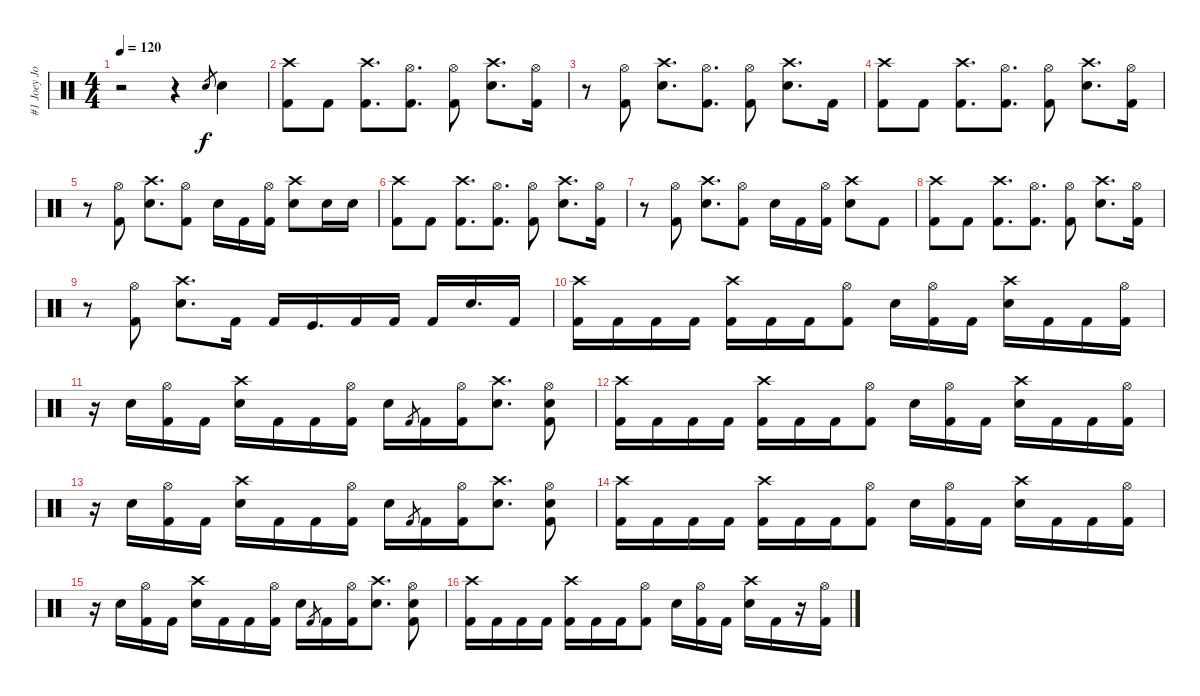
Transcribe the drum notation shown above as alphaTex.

\track ("#1 Joey Jordison" "#1 Joey Jo") {instrument percussion}
\staff {score}
\articulation defaults
\ts (4 4)
\tempo 120
\clef neutral
\ks c
r.2{dy f} r.4 "Electric Snare (hit)".8{gr} "Electric Snare (hit)".4 |
("Crash high (hit)" "Kick (hit) 2").8 "Kick (hit) 2".8 ("Crash high (hit)" "Kick (hit) 2").8{d} ("Hi-Hat (open)" "Kick (hit) 2").8{d} ("Hi-Hat (open)" "Kick (hit) 2").8 ("Crash high (hit)" "Electric Snare (hit)").8{d} ("Hi-Hat (open)" "Kick (hit) 2").16 |
r.8 ("Hi-Hat (open)" "Kick (hit) 2").8 ("Crash high (hit)" "Electric Snare (hit)").8{d} ("Hi-Hat (open)" "Kick (hit) 2").8{d} ("Hi-Hat (open)" "Kick (hit) 2").8 ("Crash high (hit)" "Electric Snare (hit)").8{d} "Kick (hit) 2".16 |
("Crash high (hit)" "Kick (hit) 2").8 "Kick (hit) 2".8 ("Crash high (hit)" "Kick (hit) 2").8{d} ("Hi-Hat (open)" "Kick (hit) 2").8{d} ("Hi-Hat (open)" "Kick (hit) 2").8 ("Crash high (hit)" "Electric Snare (hit)").8{d} ("Hi-Hat (open)" "Kick (hit) 2").16 |
r.8 ("Hi-Hat (open)" "Kick (hit) 2").8 ("Crash high (hit)" "Electric Snare (hit)").8{d} ("Hi-Hat (open)" "Kick (hit) 2").8 "Electric Snare (hit)".16 "Kick (hit) 2".16 ("Hi-Hat (open)" "Kick (hit) 2").16 ("Crash high (hit)" "Electric Snare (hit)").8 "Electric Snare (hit)".16 "Electric Snare (hit)".16 |
("Crash high (hit)" "Kick (hit) 2").8 "Kick (hit) 2".8 ("Crash high (hit)" "Kick (hit) 2").8{d} ("Hi-Hat (open)" "Kick (hit) 2").8{d} ("Hi-Hat (open)" "Kick (hit) 2").8 ("Crash high (hit)" "Electric Snare (hit)").8{d} ("Hi-Hat (open)" "Kick (hit) 2").16 |
r.8 ("Hi-Hat (open)" "Kick (hit) 2").8 ("Crash high (hit)" "Electric Snare (hit)").8{d} ("Hi-Hat (open)" "Kick (hit) 2").8 "Electric Snare (hit)".16 "Kick (hit) 2".16 ("Hi-Hat (open)" "Kick (hit) 2").16 ("Crash high (hit)" "Electric Snare (hit)").8 "Kick (hit) 2".8 |
("Crash high (hit)" "Kick (hit) 2").8 "Kick (hit) 2".8 ("Crash high (hit)" "Kick (hit) 2").8{d} ("Hi-Hat (open)" "Kick (hit) 2").8{d} ("Hi-Hat (open)" "Kick (hit) 2").8 ("Crash high (hit)" "Electric Snare (hit)").8{d} ("Hi-Hat (open)" "Kick (hit) 2").16 |
r.8 ("Hi-Hat (open)" "Kick (hit) 2").8 ("Crash high (hit)" "Electric Snare (hit)").8{d} "Kick (hit) 2".16 "Kick (hit) 2".16 "Kick (hit)".16{d} "Kick (hit) 2".16 "Kick (hit) 2".16 "Kick (hit) 2".16 "Electric Snare (hit)".16{d} "Kick (hit) 2".16 |
("Crash high (hit)" "Kick (hit) 2").16 "Kick (hit) 2".16 "Kick (hit) 2".16 "Kick (hit) 2".16 ("Crash high (hit)" "Kick (hit) 2").16 "Kick (hit) 2".16 "Kick (hit) 2".16 ("Hi-Hat (open)" "Kick (hit) 2").8 "Electric Snare (hit)".16 ("Hi-Hat (open)" "Kick (hit) 2").16 "Kick (hit) 2".16 ("Crash high (hit)" "Electric Snare (hit)").16 "Kick (hit) 2".16 "Kick (hit) 2".16 ("Hi-Hat (open)" "Kick (hit) 2").16 |
r.16 "Electric Snare (hit)".16 ("Hi-Hat (open)" "Kick (hit) 2").16 "Kick (hit) 2".16 ("Crash high (hit)" "Electric Snare (hit)").16 "Kick (hit) 2".16 "Kick (hit) 2".16 ("Hi-Hat (open)" "Kick (hit) 2").16 "Electric Snare (hit)".16 "Kick (hit) 2".8{gr} "Kick (hit) 2".16 ("Hi-Hat (open)" "Kick (hit) 2").16 ("Crash high (hit)" "Electric Snare (hit)").8{d} ("Hi-Hat (open)" "Electric Snare (hit)" "Kick (hit) 2").8 |
("Crash high (hit)" "Kick (hit) 2").16 "Kick (hit) 2".16 "Kick (hit) 2".16 "Kick (hit) 2".16 ("Crash high (hit)" "Kick (hit) 2").16 "Kick (hit) 2".16 "Kick (hit) 2".16 ("Hi-Hat (open)" "Kick (hit) 2").8 "Electric Snare (hit)".16 ("Hi-Hat (open)" "Kick (hit) 2").16 "Kick (hit) 2".16 ("Crash high (hit)" "Electric Snare (hit)").16 "Kick (hit) 2".16 "Kick (hit) 2".16 ("Hi-Hat (open)" "Kick (hit) 2").16 |
r.16 "Electric Snare (hit)".16 ("Hi-Hat (open)" "Kick (hit) 2").16 "Kick (hit) 2".16 ("Crash high (hit)" "Electric Snare (hit)").16 "Kick (hit) 2".16 "Kick (hit) 2".16 ("Hi-Hat (open)" "Kick (hit) 2").16 "Electric Snare (hit)".16 "Kick (hit) 2".8{gr} "Kick (hit) 2".16 ("Hi-Hat (open)" "Kick (hit) 2").16 ("Crash high (hit)" "Electric Snare (hit)").8{d} ("Hi-Hat (open)" "Electric Snare (hit)" "Kick (hit) 2").8 |
("Crash high (hit)" "Kick (hit) 2").16 "Kick (hit) 2".16 "Kick (hit) 2".16 "Kick (hit) 2".16 ("Crash high (hit)" "Kick (hit) 2").16 "Kick (hit) 2".16 "Kick (hit) 2".16 ("Hi-Hat (open)" "Kick (hit) 2").8 "Electric Snare (hit)".16 ("Hi-Hat (open)" "Kick (hit) 2").16 "Kick (hit) 2".16 ("Crash high (hit)" "Electric Snare (hit)").16 "Kick (hit) 2".16 "Kick (hit) 2".16 ("Hi-Hat (open)" "Kick (hit) 2").16 |
r.16 "Electric Snare (hit)".16 ("Hi-Hat (open)" "Kick (hit) 2").16 "Kick (hit) 2".16 ("Crash high (hit)" "Electric Snare (hit)").16 "Kick (hit) 2".16 "Kick (hit) 2".16 ("Hi-Hat (open)" "Kick (hit) 2").16 "Electric Snare (hit)".16 "Kick (hit) 2".8{gr} "Kick (hit) 2".16 ("Hi-Hat (open)" "Kick (hit) 2").16 ("Crash high (hit)" "Electric Snare (hit)").8{d} ("Hi-Hat (open)" "Electric Snare (hit)" "Kick (hit) 2").8 |
("Crash high (hit)" "Kick (hit) 2").16 "Kick (hit) 2".16 "Kick (hit) 2".16 "Kick (hit) 2".16 ("Crash high (hit)" "Kick (hit) 2").16 "Kick (hit) 2".16 "Kick (hit) 2".16 ("Hi-Hat (open)" "Kick (hit) 2").8 "Electric Snare (hit)".16 ("Hi-Hat (open)" "Kick (hit) 2").16 "Kick (hit) 2".16 ("Crash high (hit)" "Electric Snare (hit)").16 "Kick (hit) 2".16 r.16 ("Hi-Hat (open)" "Kick (hit) 2").16
